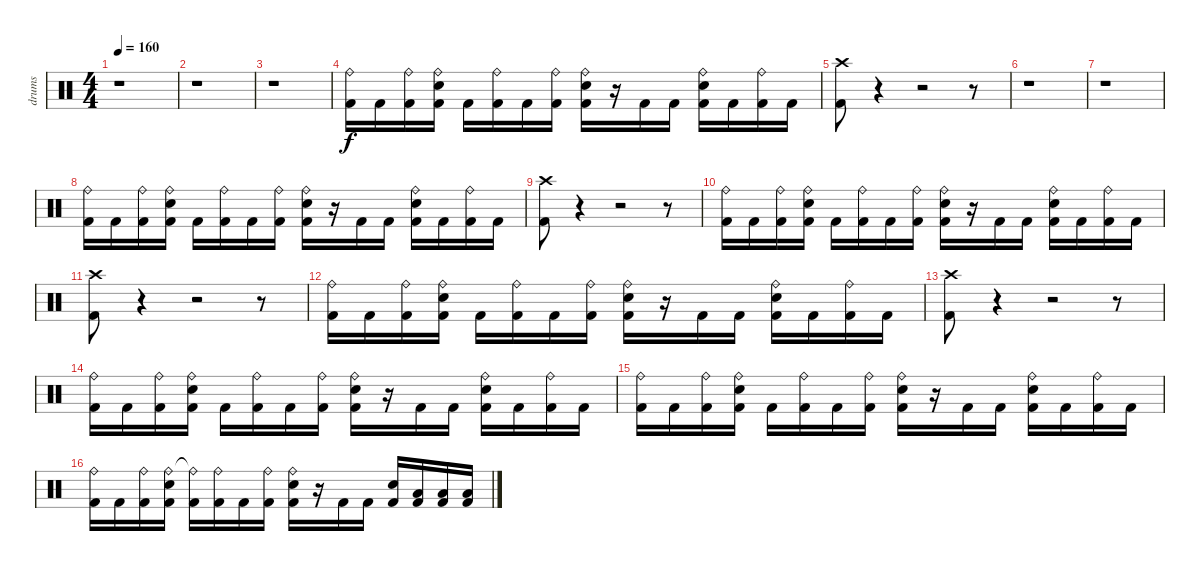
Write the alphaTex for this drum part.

\track ("drums" "drums") {instrument percussion}
\staff {score}
\articulation defaults
\ts (4 4)
\tempo 160
\clef neutral
\ks c
r.1{dy f} |
r.1 |
r.1 |
("Ride (bell)" "Kick (hit) 2").16 "Kick (hit) 2".16 ("Ride (bell)" "Kick (hit) 2").16 ("Ride (bell)" "Snare (hit) 2" "Kick (hit) 2").16 "Kick (hit) 2".16 ("Ride (bell)" "Kick (hit) 2").16 "Kick (hit) 2".16 ("Ride (bell)" "Kick (hit) 2").16 ("Ride (bell)" "Snare (hit) 2" "Kick (hit) 2").16 r.16 "Kick (hit) 2".16 "Kick (hit) 2".16 ("Ride (bell)" "Snare (hit) 2" "Kick (hit) 2").16 "Kick (hit) 2".16 ("Ride (bell)" "Kick (hit) 2").16 "Kick (hit) 2".16 |
("Crash high (hit)" "Kick (hit) 2").8 r.4 r.2 r.8 |
r.1 |
r.1 |
("Ride (bell)" "Kick (hit) 2").16 "Kick (hit) 2".16 ("Ride (bell)" "Kick (hit) 2").16 ("Ride (bell)" "Snare (hit) 2" "Kick (hit) 2").16 "Kick (hit) 2".16 ("Ride (bell)" "Kick (hit) 2").16 "Kick (hit) 2".16 ("Ride (bell)" "Kick (hit) 2").16 ("Ride (bell)" "Snare (hit) 2" "Kick (hit) 2").16 r.16 "Kick (hit) 2".16 "Kick (hit) 2".16 ("Ride (bell)" "Snare (hit) 2" "Kick (hit) 2").16 "Kick (hit) 2".16 ("Ride (bell)" "Kick (hit) 2").16 "Kick (hit) 2".16 |
("Crash high (hit)" "Kick (hit) 2").8 r.4 r.2 r.8 |
("Ride (bell)" "Kick (hit) 2").16 "Kick (hit) 2".16 ("Ride (bell)" "Kick (hit) 2").16 ("Ride (bell)" "Snare (hit) 2" "Kick (hit) 2").16 "Kick (hit) 2".16 ("Ride (bell)" "Kick (hit) 2").16 "Kick (hit) 2".16 ("Ride (bell)" "Kick (hit) 2").16 ("Ride (bell)" "Snare (hit) 2" "Kick (hit) 2").16 r.16 "Kick (hit) 2".16 "Kick (hit) 2".16 ("Ride (bell)" "Snare (hit) 2" "Kick (hit) 2").16 "Kick (hit) 2".16 ("Ride (bell)" "Kick (hit) 2").16 "Kick (hit) 2".16 |
("Crash high (hit)" "Kick (hit) 2").8 r.4 r.2 r.8 |
("Ride (bell)" "Kick (hit) 2").16 "Kick (hit) 2".16 ("Ride (bell)" "Kick (hit) 2").16 ("Ride (bell)" "Snare (hit) 2" "Kick (hit) 2").16 "Kick (hit) 2".16 ("Ride (bell)" "Kick (hit) 2").16 "Kick (hit) 2".16 ("Ride (bell)" "Kick (hit) 2").16 ("Ride (bell)" "Snare (hit) 2" "Kick (hit) 2").16 r.16 "Kick (hit) 2".16 "Kick (hit) 2".16 ("Ride (bell)" "Snare (hit) 2" "Kick (hit) 2").16 "Kick (hit) 2".16 ("Ride (bell)" "Kick (hit) 2").16 "Kick (hit) 2".16 |
("Crash high (hit)" "Kick (hit) 2").8 r.4 r.2 r.8 |
("Ride (bell)" "Kick (hit) 2").16 "Kick (hit) 2".16 ("Ride (bell)" "Kick (hit) 2").16 ("Ride (bell)" "Snare (hit) 2" "Kick (hit) 2").16 "Kick (hit) 2".16 ("Ride (bell)" "Kick (hit) 2").16 "Kick (hit) 2".16 ("Ride (bell)" "Kick (hit) 2").16 ("Ride (bell)" "Snare (hit) 2" "Kick (hit) 2").16 r.16 "Kick (hit) 2".16 "Kick (hit) 2".16 ("Ride (bell)" "Snare (hit) 2" "Kick (hit) 2").16 "Kick (hit) 2".16 ("Ride (bell)" "Kick (hit) 2").16 "Kick (hit) 2".16 |
("Ride (bell)" "Kick (hit) 2").16 "Kick (hit) 2".16 ("Ride (bell)" "Kick (hit) 2").16 ("Ride (bell)" "Snare (hit) 2" "Kick (hit) 2").16 "Kick (hit) 2".16 ("Ride (bell)" "Kick (hit) 2").16 "Kick (hit) 2".16 ("Ride (bell)" "Kick (hit) 2").16 ("Ride (bell)" "Snare (hit) 2" "Kick (hit) 2").16 r.16 "Kick (hit) 2".16 "Kick (hit) 2".16 ("Ride (bell)" "Snare (hit) 2" "Kick (hit) 2").16 "Kick (hit) 2".16 ("Ride (bell)" "Kick (hit) 2").16 "Kick (hit) 2".16 |
("Ride (bell)" "Kick (hit) 2").16 "Kick (hit) 2".16 ("Ride (bell)" "Kick (hit) 2").16 ("Ride (bell)" "Snare (hit) 2" "Kick (hit) 2").16 ("Ride (bell)"{t} "Kick (hit) 2").16 ("Ride (bell)" "Kick (hit) 2").16 "Kick (hit) 2".16 ("Ride (bell)" "Kick (hit) 2").16 ("Ride (bell)" "Snare (hit) 2" "Kick (hit) 2").16 r.16 "Kick (hit) 2".16 "Kick (hit) 2".16 ("Electric Snare (hit)" "Kick (hit) 2").16 ("Low Tom (hit)" "Kick (hit) 2").16 ("Low Tom (hit)" "Kick (hit) 2").16 ("Low Tom (hit)" "Kick (hit) 2").16
